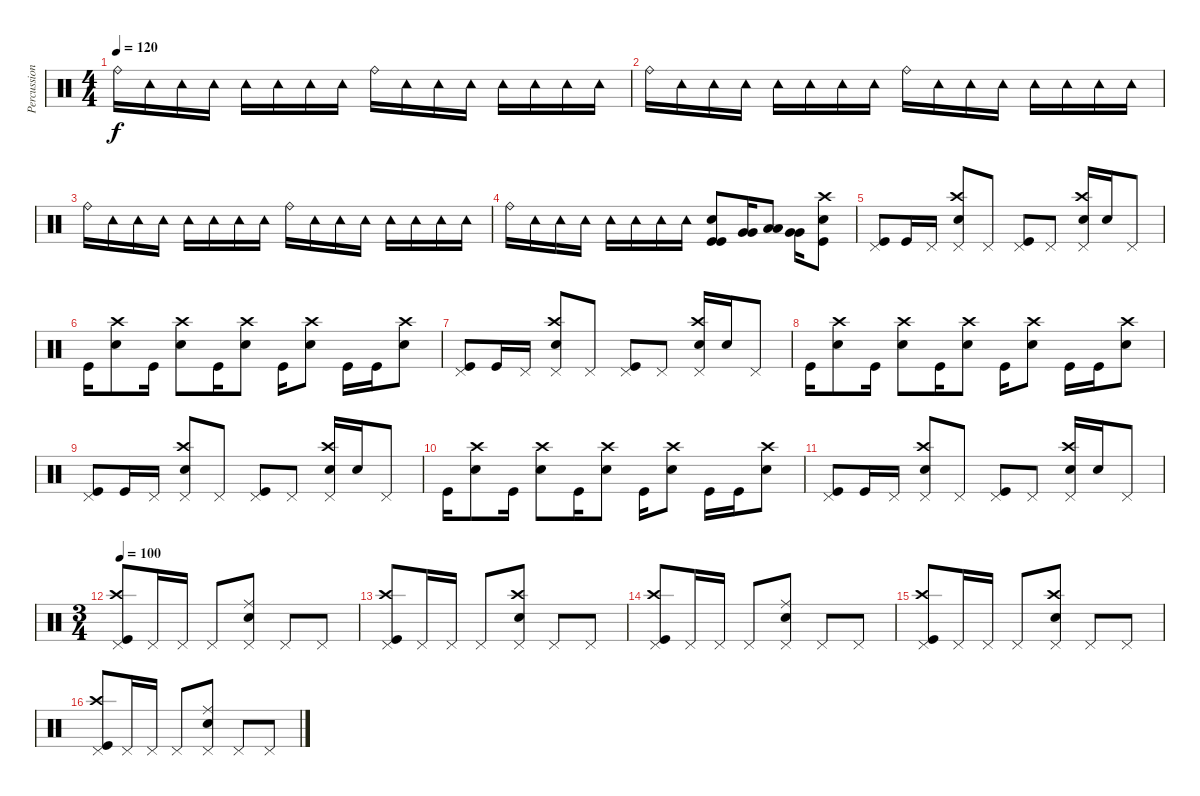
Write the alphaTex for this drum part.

\track ("Percussion" "Percussion") {instrument percussion}
\staff {score}
\articulation defaults
\ts (4 4)
\tempo 120
\clef neutral
\ks c "Ride (bell)".16{dy f} "Tambourine (hit)".16 "Tambourine (hit)".16 "Tambourine (hit)".16 "Tambourine (hit)".16 "Tambourine (hit)".16 "Tambourine (hit)".16 "Tambourine (hit)".16 "Ride (bell)".16 "Tambourine (hit)".16 "Tambourine (hit)".16 "Tambourine (hit)".16 "Tambourine (hit)".16 "Tambourine (hit)".16 "Tambourine (hit)".16 "Tambourine (hit)".16
|
"Ride (bell)".16 "Tambourine (hit)".16 "Tambourine (hit)".16 "Tambourine (hit)".16 "Tambourine (hit)".16 "Tambourine (hit)".16 "Tambourine (hit)".16 "Tambourine (hit)".16 "Ride (bell)".16 "Tambourine (hit)".16 "Tambourine (hit)".16 "Tambourine (hit)".16 "Tambourine (hit)".16 "Tambourine (hit)".16 "Tambourine (hit)".16 "Tambourine (hit)".16 |
"Ride (bell)".16 "Tambourine (hit)".16 "Tambourine (hit)".16 "Tambourine (hit)".16 "Tambourine (hit)".16 "Tambourine (hit)".16 "Tambourine (hit)".16 "Tambourine (hit)".16 "Ride (bell)".16 "Tambourine (hit)".16 "Tambourine (hit)".16 "Tambourine (hit)".16 "Tambourine (hit)".16 "Tambourine (hit)".16 "Tambourine (hit)".16 "Tambourine (hit)".16 |
"Ride (bell)".16 "Tambourine (hit)".16 "Tambourine (hit)".16 "Tambourine (hit)".16 "Tambourine (hit)".16 "Tambourine (hit)".16 "Tambourine (hit)".16 "Tambourine (hit)".16 ("Electric Snare (hit)" "Kick (hit)" "Kick (hit)").8 ("Very Low Tom (hit)" "Very Low Tom (hit)").16 ("Low Floor Tom (hit)" "Low Floor Tom (hit)").8 ("Very Low Tom (hit)" "Very Low Tom (hit)").16 ("Crash high (hit)" "Electric Snare (hit)" "Kick (hit)").8 |
("Pedal Hi-Hat (hit)" "Kick (hit)").8 "Kick (hit)".16 "Pedal Hi-Hat (hit)".16 ("Crash high (hit)" "Pedal Hi-Hat (hit)" "Electric Snare (hit)").8 "Pedal Hi-Hat (hit)".8 ("Pedal Hi-Hat (hit)" "Kick (hit)").8 "Pedal Hi-Hat (hit)".8 ("Crash high (hit)" "Pedal Hi-Hat (hit)" "Electric Snare (hit)").16 "Electric Snare (hit)".16 "Pedal Hi-Hat (hit)".8 |
"Kick (hit)".16 ("Crash high (hit)" "Electric Snare (hit)").8 "Kick (hit)".16 ("Crash high (hit)" "Electric Snare (hit)").8 "Kick (hit)".16 ("Crash high (hit)" "Electric Snare (hit)").8 "Kick (hit)".16 ("Crash high (hit)" "Electric Snare (hit)").8 "Kick (hit)".16 "Kick (hit)".16 ("Crash high (hit)" "Electric Snare (hit)").8 |
("Pedal Hi-Hat (hit)" "Kick (hit)").8 "Kick (hit)".16 "Pedal Hi-Hat (hit)".16 ("Crash high (hit)" "Pedal Hi-Hat (hit)" "Electric Snare (hit)").8 "Pedal Hi-Hat (hit)".8 ("Pedal Hi-Hat (hit)" "Kick (hit)").8 "Pedal Hi-Hat (hit)".8 ("Crash high (hit)" "Pedal Hi-Hat (hit)" "Electric Snare (hit)").16 "Electric Snare (hit)".16 "Pedal Hi-Hat (hit)".8 |
"Kick (hit)".16 ("Crash high (hit)" "Electric Snare (hit)").8 "Kick (hit)".16 ("Crash high (hit)" "Electric Snare (hit)").8 "Kick (hit)".16 ("Crash high (hit)" "Electric Snare (hit)").8 "Kick (hit)".16 ("Crash high (hit)" "Electric Snare (hit)").8 "Kick (hit)".16 "Kick (hit)".16 ("Crash high (hit)" "Electric Snare (hit)").8 |
("Pedal Hi-Hat (hit)" "Kick (hit)").8 "Kick (hit)".16 "Pedal Hi-Hat (hit)".16 ("Crash high (hit)" "Pedal Hi-Hat (hit)" "Electric Snare (hit)").8 "Pedal Hi-Hat (hit)".8 ("Pedal Hi-Hat (hit)" "Kick (hit)").8 "Pedal Hi-Hat (hit)".8 ("Crash high (hit)" "Pedal Hi-Hat (hit)" "Electric Snare (hit)").16 "Electric Snare (hit)".16 "Pedal Hi-Hat (hit)".8 |
"Kick (hit)".16 ("Crash high (hit)" "Electric Snare (hit)").8 "Kick (hit)".16 ("Crash high (hit)" "Electric Snare (hit)").8 "Kick (hit)".16 ("Crash high (hit)" "Electric Snare (hit)").8 "Kick (hit)".16 ("Crash high (hit)" "Electric Snare (hit)").8 "Kick (hit)".16 "Kick (hit)".16 ("Crash high (hit)" "Electric Snare (hit)").8 |
("Pedal Hi-Hat (hit)" "Kick (hit)").8 "Kick (hit)".16 "Pedal Hi-Hat (hit)".16 ("Crash high (hit)" "Pedal Hi-Hat (hit)" "Electric Snare (hit)").8 "Pedal Hi-Hat (hit)".8 ("Pedal Hi-Hat (hit)" "Kick (hit)").8 "Pedal Hi-Hat (hit)".8 ("Crash high (hit)" "Pedal Hi-Hat (hit)" "Electric Snare (hit)").16 "Electric Snare (hit)".16 "Pedal Hi-Hat (hit)".8 |
\ts (3 4)
\tempo 100
("Pedal Hi-Hat (hit)" "Crash high (hit)" "Kick (hit)").8 "Pedal Hi-Hat (hit)".16 "Pedal Hi-Hat (hit)".16 "Pedal Hi-Hat (hit)".8 ("Pedal Hi-Hat (hit)" "Electric Snare (hit)" "Ride (middle)").8 "Pedal Hi-Hat (hit)".8 "Pedal Hi-Hat (hit)".8 |
("Pedal Hi-Hat (hit)" "Crash high (hit)" "Kick (hit)").8 "Pedal Hi-Hat (hit)".16 "Pedal Hi-Hat (hit)".16 "Pedal Hi-Hat (hit)".8 ("Pedal Hi-Hat (hit)" "Electric Snare (hit)" "Crash high (hit)").8 "Pedal Hi-Hat (hit)".8 "Pedal Hi-Hat (hit)".8 |
("Pedal Hi-Hat (hit)" "Crash high (hit)" "Kick (hit)").8 "Pedal Hi-Hat (hit)".16 "Pedal Hi-Hat (hit)".16 "Pedal Hi-Hat (hit)".8 ("Pedal Hi-Hat (hit)" "Electric Snare (hit)" "Ride (middle)").8 "Pedal Hi-Hat (hit)".8 "Pedal Hi-Hat (hit)".8 |
("Pedal Hi-Hat (hit)" "Crash high (hit)" "Kick (hit)").8 "Pedal Hi-Hat (hit)".16 "Pedal Hi-Hat (hit)".16 "Pedal Hi-Hat (hit)".8 ("Pedal Hi-Hat (hit)" "Electric Snare (hit)" "Crash high (hit)").8 "Pedal Hi-Hat (hit)".8 "Pedal Hi-Hat (hit)".8 |
("Pedal Hi-Hat (hit)" "Crash high (hit)" "Kick (hit)").8 "Pedal Hi-Hat (hit)".16 "Pedal Hi-Hat (hit)".16 "Pedal Hi-Hat (hit)".8 ("Pedal Hi-Hat (hit)" "Electric Snare (hit)" "Ride (middle)").8 "Pedal Hi-Hat (hit)".8 "Pedal Hi-Hat (hit)".8
